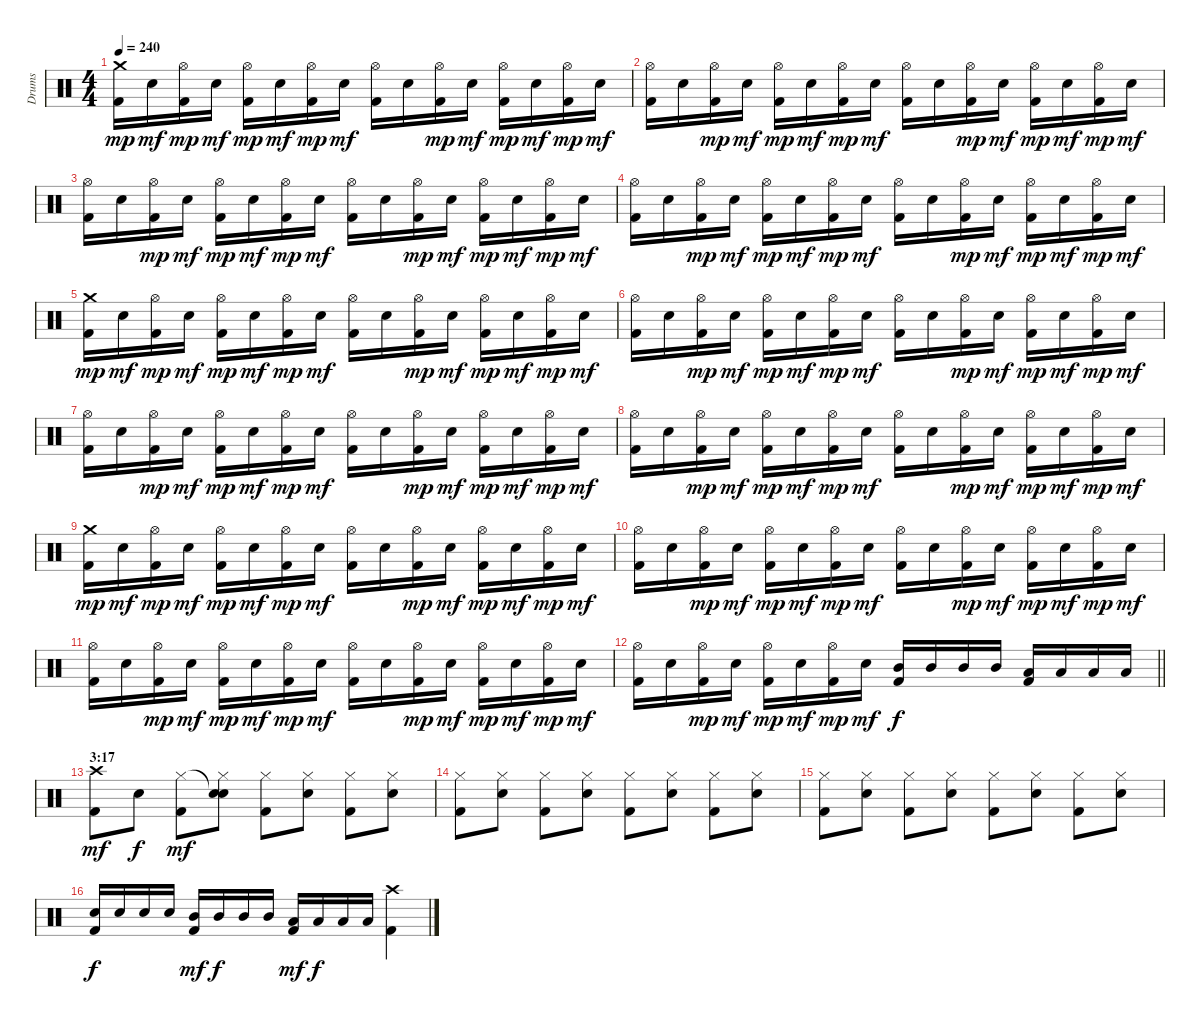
\track ("Drums" "Drums") {instrument percussion}
\staff {score}
\articulation defaults
\ts (4 4)
\tempo 240
\clef neutral
\ks c
("Crash medium (hit)" "Kick (hit) 2").16{dy mp} "Electric Snare (hit)".16{dy mf} ("Hi-Hat (open)" "Kick (hit) 2").16{dy mp} "Electric Snare (hit)".16{dy mf} ("Hi-Hat (open)" "Kick (hit) 2").16{dy mp} "Electric Snare (hit)".16{dy mf} ("Hi-Hat (open)" "Kick (hit) 2").16{dy mp} "Electric Snare (hit)".16{dy mf} ("Hi-Hat (open)" "Kick (hit) 2").16 "Electric Snare (hit)".16 ("Hi-Hat (open)" "Kick (hit) 2").16{dy mp} "Electric Snare (hit)".16{dy mf} ("Hi-Hat (open)" "Kick (hit) 2").16{dy mp} "Electric Snare (hit)".16{dy mf} ("Hi-Hat (open)" "Kick (hit) 2").16{dy mp} "Electric Snare (hit)".16{dy mf} |
("Hi-Hat (open)" "Kick (hit) 2").16 "Electric Snare (hit)".16 ("Hi-Hat (open)" "Kick (hit) 2").16{dy mp} "Electric Snare (hit)".16{dy mf} ("Hi-Hat (open)" "Kick (hit) 2").16{dy mp} "Electric Snare (hit)".16{dy mf} ("Hi-Hat (open)" "Kick (hit) 2").16{dy mp} "Electric Snare (hit)".16{dy mf} ("Hi-Hat (open)" "Kick (hit) 2").16 "Electric Snare (hit)".16 ("Hi-Hat (open)" "Kick (hit) 2").16{dy mp} "Electric Snare (hit)".16{dy mf} ("Hi-Hat (open)" "Kick (hit) 2").16{dy mp} "Electric Snare (hit)".16{dy mf} ("Hi-Hat (open)" "Kick (hit) 2").16{dy mp} "Electric Snare (hit)".16{dy mf} |
("Hi-Hat (open)" "Kick (hit) 2").16 "Electric Snare (hit)".16 ("Hi-Hat (open)" "Kick (hit) 2").16{dy mp} "Electric Snare (hit)".16{dy mf} ("Hi-Hat (open)" "Kick (hit) 2").16{dy mp} "Electric Snare (hit)".16{dy mf} ("Hi-Hat (open)" "Kick (hit) 2").16{dy mp} "Electric Snare (hit)".16{dy mf} ("Hi-Hat (open)" "Kick (hit) 2").16 "Electric Snare (hit)".16 ("Hi-Hat (open)" "Kick (hit) 2").16{dy mp} "Electric Snare (hit)".16{dy mf} ("Hi-Hat (open)" "Kick (hit) 2").16{dy mp} "Electric Snare (hit)".16{dy mf} ("Hi-Hat (open)" "Kick (hit) 2").16{dy mp} "Electric Snare (hit)".16{dy mf} |
("Hi-Hat (open)" "Kick (hit) 2").16 "Electric Snare (hit)".16 ("Hi-Hat (open)" "Kick (hit) 2").16{dy mp} "Electric Snare (hit)".16{dy mf} ("Hi-Hat (open)" "Kick (hit) 2").16{dy mp} "Electric Snare (hit)".16{dy mf} ("Hi-Hat (open)" "Kick (hit) 2").16{dy mp} "Electric Snare (hit)".16{dy mf} ("Hi-Hat (open)" "Kick (hit) 2").16 "Electric Snare (hit)".16 ("Hi-Hat (open)" "Kick (hit) 2").16{dy mp} "Electric Snare (hit)".16{dy mf} ("Hi-Hat (open)" "Kick (hit) 2").16{dy mp} "Electric Snare (hit)".16{dy mf} ("Hi-Hat (open)" "Kick (hit) 2").16{dy mp} "Electric Snare (hit)".16{dy mf} |
("Crash medium (hit)" "Kick (hit) 2").16{dy mp} "Electric Snare (hit)".16{dy mf} ("Hi-Hat (open)" "Kick (hit) 2").16{dy mp} "Electric Snare (hit)".16{dy mf} ("Hi-Hat (open)" "Kick (hit) 2").16{dy mp} "Electric Snare (hit)".16{dy mf} ("Hi-Hat (open)" "Kick (hit) 2").16{dy mp} "Electric Snare (hit)".16{dy mf} ("Hi-Hat (open)" "Kick (hit) 2").16 "Electric Snare (hit)".16 ("Hi-Hat (open)" "Kick (hit) 2").16{dy mp} "Electric Snare (hit)".16{dy mf} ("Hi-Hat (open)" "Kick (hit) 2").16{dy mp} "Electric Snare (hit)".16{dy mf} ("Hi-Hat (open)" "Kick (hit) 2").16{dy mp} "Electric Snare (hit)".16{dy mf} |
("Hi-Hat (open)" "Kick (hit) 2").16 "Electric Snare (hit)".16 ("Hi-Hat (open)" "Kick (hit) 2").16{dy mp} "Electric Snare (hit)".16{dy mf} ("Hi-Hat (open)" "Kick (hit) 2").16{dy mp} "Electric Snare (hit)".16{dy mf} ("Hi-Hat (open)" "Kick (hit) 2").16{dy mp} "Electric Snare (hit)".16{dy mf} ("Hi-Hat (open)" "Kick (hit) 2").16 "Electric Snare (hit)".16 ("Hi-Hat (open)" "Kick (hit) 2").16{dy mp} "Electric Snare (hit)".16{dy mf} ("Hi-Hat (open)" "Kick (hit) 2").16{dy mp} "Electric Snare (hit)".16{dy mf} ("Hi-Hat (open)" "Kick (hit) 2").16{dy mp} "Electric Snare (hit)".16{dy mf} |
("Hi-Hat (open)" "Kick (hit) 2").16 "Electric Snare (hit)".16 ("Hi-Hat (open)" "Kick (hit) 2").16{dy mp} "Electric Snare (hit)".16{dy mf} ("Hi-Hat (open)" "Kick (hit) 2").16{dy mp} "Electric Snare (hit)".16{dy mf} ("Hi-Hat (open)" "Kick (hit) 2").16{dy mp} "Electric Snare (hit)".16{dy mf} ("Hi-Hat (open)" "Kick (hit) 2").16 "Electric Snare (hit)".16 ("Hi-Hat (open)" "Kick (hit) 2").16{dy mp} "Electric Snare (hit)".16{dy mf} ("Hi-Hat (open)" "Kick (hit) 2").16{dy mp} "Electric Snare (hit)".16{dy mf} ("Hi-Hat (open)" "Kick (hit) 2").16{dy mp} "Electric Snare (hit)".16{dy mf} |
("Hi-Hat (open)" "Kick (hit) 2").16 "Electric Snare (hit)".16 ("Hi-Hat (open)" "Kick (hit) 2").16{dy mp} "Electric Snare (hit)".16{dy mf} ("Hi-Hat (open)" "Kick (hit) 2").16{dy mp} "Electric Snare (hit)".16{dy mf} ("Hi-Hat (open)" "Kick (hit) 2").16{dy mp} "Electric Snare (hit)".16{dy mf} ("Hi-Hat (open)" "Kick (hit) 2").16 "Electric Snare (hit)".16 ("Hi-Hat (open)" "Kick (hit) 2").16{dy mp} "Electric Snare (hit)".16{dy mf} ("Hi-Hat (open)" "Kick (hit) 2").16{dy mp} "Electric Snare (hit)".16{dy mf} ("Hi-Hat (open)" "Kick (hit) 2").16{dy mp} "Electric Snare (hit)".16{dy mf} |
("Crash medium (hit)" "Kick (hit) 2").16{dy mp} "Electric Snare (hit)".16{dy mf} ("Hi-Hat (open)" "Kick (hit) 2").16{dy mp} "Electric Snare (hit)".16{dy mf} ("Hi-Hat (open)" "Kick (hit) 2").16{dy mp} "Electric Snare (hit)".16{dy mf} ("Hi-Hat (open)" "Kick (hit) 2").16{dy mp} "Electric Snare (hit)".16{dy mf} ("Hi-Hat (open)" "Kick (hit) 2").16 "Electric Snare (hit)".16 ("Hi-Hat (open)" "Kick (hit) 2").16{dy mp} "Electric Snare (hit)".16{dy mf} ("Hi-Hat (open)" "Kick (hit) 2").16{dy mp} "Electric Snare (hit)".16{dy mf} ("Hi-Hat (open)" "Kick (hit) 2").16{dy mp} "Electric Snare (hit)".16{dy mf} |
("Hi-Hat (open)" "Kick (hit) 2").16 "Electric Snare (hit)".16 ("Hi-Hat (open)" "Kick (hit) 2").16{dy mp} "Electric Snare (hit)".16{dy mf} ("Hi-Hat (open)" "Kick (hit) 2").16{dy mp} "Electric Snare (hit)".16{dy mf} ("Hi-Hat (open)" "Kick (hit) 2").16{dy mp} "Electric Snare (hit)".16{dy mf} ("Hi-Hat (open)" "Kick (hit) 2").16 "Electric Snare (hit)".16 ("Hi-Hat (open)" "Kick (hit) 2").16{dy mp} "Electric Snare (hit)".16{dy mf} ("Hi-Hat (open)" "Kick (hit) 2").16{dy mp} "Electric Snare (hit)".16{dy mf} ("Hi-Hat (open)" "Kick (hit) 2").16{dy mp} "Electric Snare (hit)".16{dy mf} |
("Hi-Hat (open)" "Kick (hit) 2").16 "Electric Snare (hit)".16 ("Hi-Hat (open)" "Kick (hit) 2").16{dy mp} "Electric Snare (hit)".16{dy mf} ("Hi-Hat (open)" "Kick (hit) 2").16{dy mp} "Electric Snare (hit)".16{dy mf} ("Hi-Hat (open)" "Kick (hit) 2").16{dy mp} "Electric Snare (hit)".16{dy mf} ("Hi-Hat (open)" "Kick (hit) 2").16 "Electric Snare (hit)".16 ("Hi-Hat (open)" "Kick (hit) 2").16{dy mp} "Electric Snare (hit)".16{dy mf} ("Hi-Hat (open)" "Kick (hit) 2").16{dy mp} "Electric Snare (hit)".16{dy mf} ("Hi-Hat (open)" "Kick (hit) 2").16{dy mp} "Electric Snare (hit)".16{dy mf} |
\barLineRight lightlight
("Hi-Hat (open)" "Kick (hit) 2").16 "Electric Snare (hit)".16 ("Hi-Hat (open)" "Kick (hit) 2").16{dy mp} "Electric Snare (hit)".16{dy mf} ("Hi-Hat (open)" "Kick (hit) 2").16{dy mp} "Electric Snare (hit)".16{dy mf} ("Hi-Hat (open)" "Kick (hit) 2").16{dy mp} "Electric Snare (hit)".16{dy mf} ("Mid Tom (hit)" "Kick (hit) 2").16{dy f} "Mid Tom (hit)".16 "Mid Tom (hit)".16 "Mid Tom (hit)".16 ("Low Tom (hit)" "Kick (hit) 2").16 "Low Tom (hit)".16 "Low Tom (hit)".16 "Low Tom (hit)".16 |
\section ("" "3:17")
("Crash high (hit)" "Kick (hit) 2").8{dy mf} "Electric Snare (hit)".8{dy f} ("Hi-Hat (closed)" "Kick (hit) 2").8{dy mf} ("Snare (hit)"{t} "Hi-Hat (closed)" "Electric Snare (hit)").8 ("Hi-Hat (closed)" "Kick (hit) 2").8 ("Hi-Hat (closed)" "Electric Snare (hit)").8 ("Hi-Hat (closed)" "Kick (hit) 2").8 ("Hi-Hat (closed)" "Electric Snare (hit)").8 |
("Hi-Hat (closed)" "Kick (hit) 2").8 ("Hi-Hat (closed)" "Electric Snare (hit)").8 ("Hi-Hat (closed)" "Kick (hit) 2").8 ("Hi-Hat (closed)" "Electric Snare (hit)").8 ("Hi-Hat (closed)" "Kick (hit) 2").8 ("Hi-Hat (closed)" "Electric Snare (hit)").8 ("Hi-Hat (closed)" "Kick (hit) 2").8 ("Hi-Hat (closed)" "Electric Snare (hit)").8 |
("Hi-Hat (closed)" "Kick (hit) 2").8 ("Hi-Hat (closed)" "Electric Snare (hit)").8 ("Hi-Hat (closed)" "Kick (hit) 2").8 ("Hi-Hat (closed)" "Electric Snare (hit)").8 ("Hi-Hat (closed)" "Kick (hit) 2").8 ("Hi-Hat (closed)" "Electric Snare (hit)").8 ("Hi-Hat (closed)" "Kick (hit) 2").8 ("Hi-Hat (closed)" "Electric Snare (hit)").8 |
("Electric Snare (hit)" "Kick (hit) 2").16{dy f} "Electric Snare (hit)".16 "Electric Snare (hit)".16 "Electric Snare (hit)".16 ("Mid Tom (hit)" "Kick (hit) 2").16{dy mf} "Mid Tom (hit)".16{dy f} "Mid Tom (hit)".16 "Mid Tom (hit)".16 ("Low Tom (hit)" "Kick (hit) 2").16{dy mf} "Low Tom (hit)".16{dy f} "Low Tom (hit)".16 "Low Tom (hit)".16 ("Crash high (hit)" "Kick (hit) 2").4
